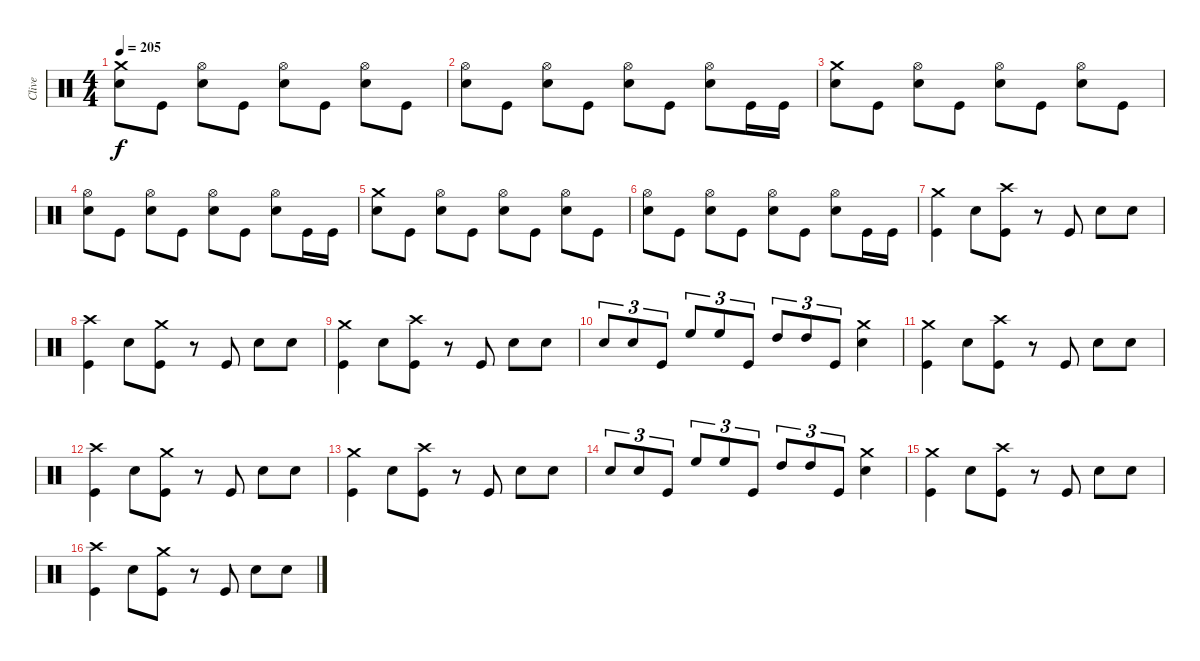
\track ("Clive" "Clive") {instrument percussion}
\staff {score}
\articulation defaults
\ts (4 4)
\tempo 205
\clef neutral
\ks c
("Crash medium (hit)" "Snare (hit) 2").8{dy f} "Kick (hit)".8 ("Hi-Hat (open)" "Snare (hit) 2").8 "Kick (hit)".8 ("Hi-Hat (open)" "Snare (hit) 2").8 "Kick (hit)".8 ("Hi-Hat (open)" "Snare (hit) 2").8 "Kick (hit)".8 |
("Hi-Hat (open)" "Snare (hit) 2").8 "Kick (hit)".8 ("Hi-Hat (open)" "Snare (hit) 2").8 "Kick (hit)".8 ("Hi-Hat (open)" "Snare (hit) 2").8 "Kick (hit)".8 ("Hi-Hat (open)" "Snare (hit) 2").8 "Kick (hit)".16 "Kick (hit)".16 |
("Crash medium (hit)" "Snare (hit) 2").8 "Kick (hit)".8 ("Hi-Hat (open)" "Snare (hit) 2").8 "Kick (hit)".8 ("Hi-Hat (open)" "Snare (hit) 2").8 "Kick (hit)".8 ("Hi-Hat (open)" "Snare (hit) 2").8 "Kick (hit)".8 |
("Hi-Hat (open)" "Snare (hit) 2").8 "Kick (hit)".8 ("Hi-Hat (open)" "Snare (hit) 2").8 "Kick (hit)".8 ("Hi-Hat (open)" "Snare (hit) 2").8 "Kick (hit)".8 ("Hi-Hat (open)" "Snare (hit) 2").8 "Kick (hit)".16 "Kick (hit)".16 |
("Crash medium (hit)" "Snare (hit) 2").8 "Kick (hit)".8 ("Hi-Hat (open)" "Snare (hit) 2").8 "Kick (hit)".8 ("Hi-Hat (open)" "Snare (hit) 2").8 "Kick (hit)".8 ("Hi-Hat (open)" "Snare (hit) 2").8 "Kick (hit)".8 |
("Hi-Hat (open)" "Snare (hit) 2").8 "Kick (hit)".8 ("Hi-Hat (open)" "Snare (hit) 2").8 "Kick (hit)".8 ("Hi-Hat (open)" "Snare (hit) 2").8 "Kick (hit)".8 ("Hi-Hat (open)" "Snare (hit) 2").8 "Kick (hit)".16 "Kick (hit)".16 |
("Crash medium (hit)" "Kick (hit)").4 "Snare (hit) 2".8 ("Crash high (hit)" "Kick (hit)").8 r.8 "Kick (hit)".8 "Snare (hit) 2".8 "Snare (hit) 2".8 |
("Crash high (hit)" "Kick (hit)").4 "Snare (hit) 2".8 ("Crash medium (hit)" "Kick (hit)").8 r.8 "Kick (hit)".8 "Snare (hit) 2".8 "Snare (hit) 2".8 |
("Crash medium (hit)" "Kick (hit)").4 "Snare (hit) 2".8 ("Crash high (hit)" "Kick (hit)").8 r.8 "Kick (hit)".8 "Snare (hit) 2".8 "Snare (hit) 2".8 |
"Snare (hit) 2".8{tu (3 2)} "Snare (hit) 2".8{tu (3 2)} "Kick (hit)".8{tu (3 2)} "High Floor Tom (hit)".8{tu (3 2)} "High Floor Tom (hit)".8{tu (3 2)} "Kick (hit)".8{tu (3 2)} "High Tom (hit)".8{tu (3 2)} "High Tom (hit)".8{tu (3 2)} "Kick (hit)".8{tu (3 2)} ("Crash medium (hit)" "Snare (hit) 2").4 |
("Crash medium (hit)" "Kick (hit)").4 "Snare (hit) 2".8 ("Crash high (hit)" "Kick (hit)").8 r.8 "Kick (hit)".8 "Snare (hit) 2".8 "Snare (hit) 2".8 |
("Crash high (hit)" "Kick (hit)").4 "Snare (hit) 2".8 ("Crash medium (hit)" "Kick (hit)").8 r.8 "Kick (hit)".8 "Snare (hit) 2".8 "Snare (hit) 2".8 |
("Crash medium (hit)" "Kick (hit)").4 "Snare (hit) 2".8 ("Crash high (hit)" "Kick (hit)").8 r.8 "Kick (hit)".8 "Snare (hit) 2".8 "Snare (hit) 2".8 |
"Snare (hit) 2".8{tu (3 2)} "Snare (hit) 2".8{tu (3 2)} "Kick (hit)".8{tu (3 2)} "High Floor Tom (hit)".8{tu (3 2)} "High Floor Tom (hit)".8{tu (3 2)} "Kick (hit)".8{tu (3 2)} "High Tom (hit)".8{tu (3 2)} "High Tom (hit)".8{tu (3 2)} "Kick (hit)".8{tu (3 2)} ("Crash medium (hit)" "Snare (hit) 2").4 |
("Crash medium (hit)" "Kick (hit)").4 "Snare (hit) 2".8 ("Crash high (hit)" "Kick (hit)").8 r.8 "Kick (hit)".8 "Snare (hit) 2".8 "Snare (hit) 2".8 |
("Crash high (hit)" "Kick (hit)").4 "Snare (hit) 2".8 ("Crash medium (hit)" "Kick (hit)").8 r.8 "Kick (hit)".8 "Snare (hit) 2".8 "Snare (hit) 2".8
